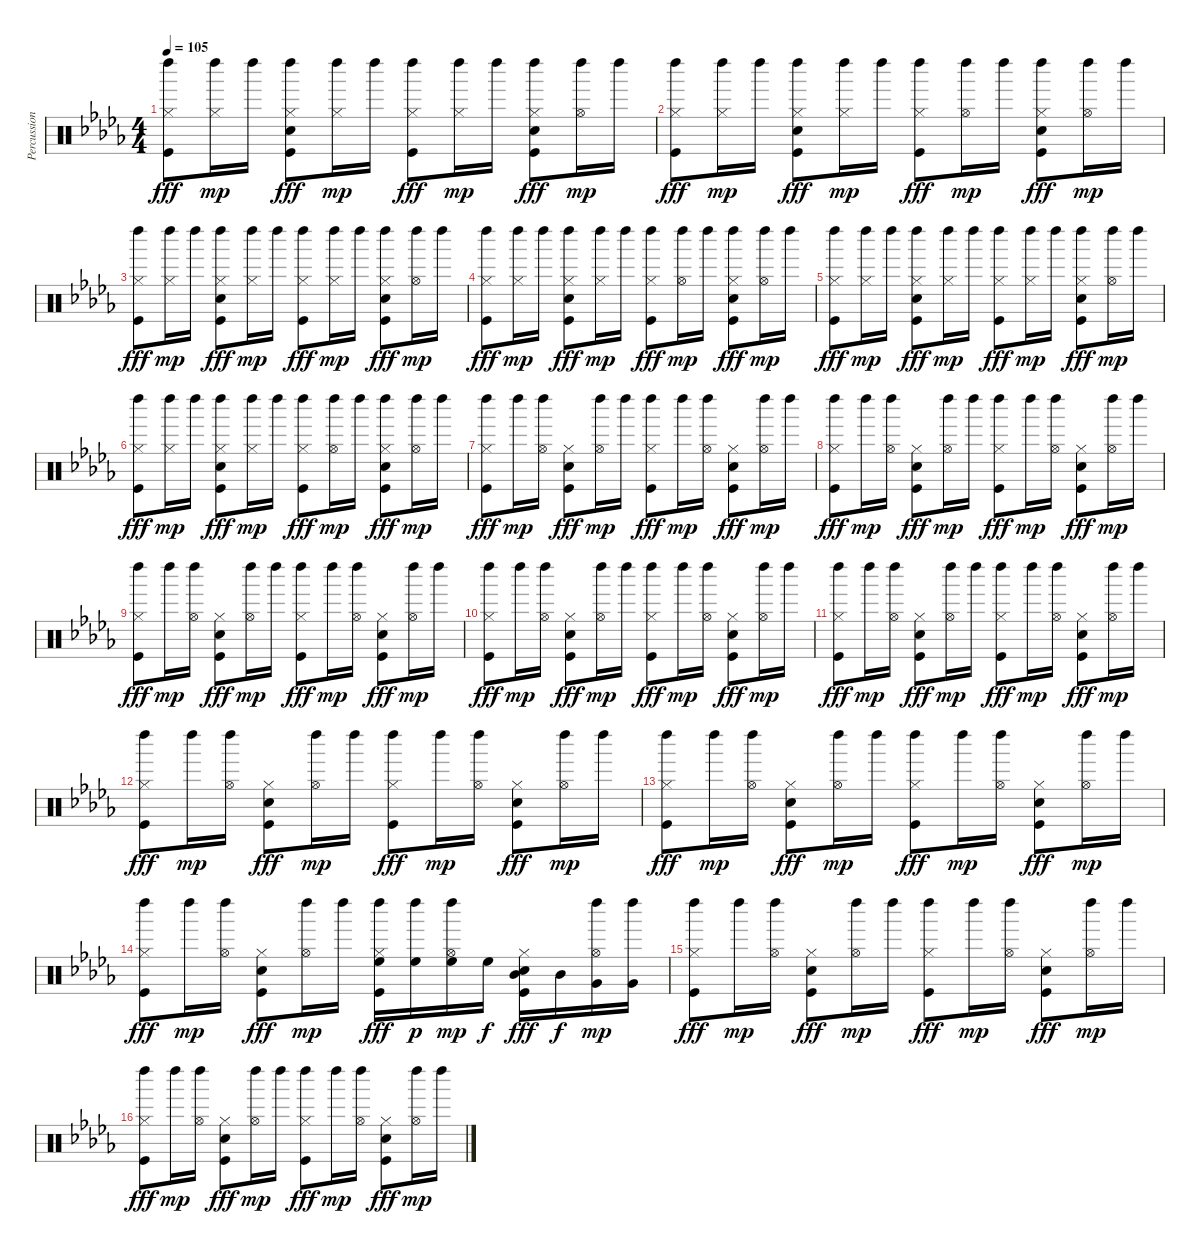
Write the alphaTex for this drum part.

\track ("Percussion" "Percussion") {instrument percussion}
\staff {score}
\articulation defaults
\ts (4 4)
\tempo 105
\clef neutral
\ks db
("Hi-Hat (closed)" "Left Maraca (hit)" "Kick (hit)").8{dy fff} ("Hi-Hat (closed)" "Left Maraca (hit)").16{dy mp} "Left Maraca (hit)".16 ("Hi-Hat (closed)" "Left Maraca (hit)" "Snare (hit) 2" "Kick (hit)").8{dy fff} ("Hi-Hat (closed)" "Left Maraca (hit)").16{dy mp} "Left Maraca (hit)".16 ("Hi-Hat (closed)" "Left Maraca (hit)" "Kick (hit)").8{dy fff} ("Hi-Hat (closed)" "Left Maraca (hit)").16{dy mp} "Left Maraca (hit)".16 ("Hi-Hat (closed)" "Left Maraca (hit)" "Snare (hit) 2" "Kick (hit)").8{dy fff} ("Hi-Hat (open)" "Left Maraca (hit)").16{dy mp} "Left Maraca (hit)".16 |
("Hi-Hat (closed)" "Left Maraca (hit)" "Kick (hit)").8{dy fff} ("Hi-Hat (closed)" "Left Maraca (hit)").16{dy mp} "Left Maraca (hit)".16 ("Hi-Hat (closed)" "Left Maraca (hit)" "Snare (hit) 2" "Kick (hit)").8{dy fff} ("Hi-Hat (closed)" "Left Maraca (hit)").16{dy mp} "Left Maraca (hit)".16 ("Hi-Hat (closed)" "Left Maraca (hit)" "Kick (hit)").8{dy fff} ("Hi-Hat (open)" "Left Maraca (hit)").16{dy mp} "Left Maraca (hit)".16 ("Hi-Hat (closed)" "Left Maraca (hit)" "Snare (hit) 2" "Kick (hit)").8{dy fff} ("Hi-Hat (open)" "Left Maraca (hit)").16{dy mp} "Left Maraca (hit)".16 |
("Hi-Hat (closed)" "Left Maraca (hit)" "Kick (hit)").8{dy fff} ("Hi-Hat (closed)" "Left Maraca (hit)").16{dy mp} "Left Maraca (hit)".16 ("Hi-Hat (closed)" "Left Maraca (hit)" "Snare (hit) 2" "Kick (hit)").8{dy fff} ("Hi-Hat (closed)" "Left Maraca (hit)").16{dy mp} "Left Maraca (hit)".16 ("Hi-Hat (closed)" "Left Maraca (hit)" "Kick (hit)").8{dy fff} ("Hi-Hat (closed)" "Left Maraca (hit)").16{dy mp} "Left Maraca (hit)".16 ("Hi-Hat (closed)" "Left Maraca (hit)" "Snare (hit) 2" "Kick (hit)").8{dy fff} ("Hi-Hat (open)" "Left Maraca (hit)").16{dy mp} "Left Maraca (hit)".16 |
("Hi-Hat (closed)" "Left Maraca (hit)" "Kick (hit)").8{dy fff} ("Hi-Hat (closed)" "Left Maraca (hit)").16{dy mp} "Left Maraca (hit)".16 ("Hi-Hat (closed)" "Left Maraca (hit)" "Snare (hit) 2" "Kick (hit)").8{dy fff} ("Hi-Hat (closed)" "Left Maraca (hit)").16{dy mp} "Left Maraca (hit)".16 ("Hi-Hat (closed)" "Left Maraca (hit)" "Kick (hit)").8{dy fff} ("Hi-Hat (open)" "Left Maraca (hit)").16{dy mp} "Left Maraca (hit)".16 ("Hi-Hat (closed)" "Left Maraca (hit)" "Snare (hit) 2" "Kick (hit)").8{dy fff} ("Hi-Hat (open)" "Left Maraca (hit)").16{dy mp} "Left Maraca (hit)".16 |
("Hi-Hat (closed)" "Left Maraca (hit)" "Kick (hit)").8{dy fff} ("Hi-Hat (closed)" "Left Maraca (hit)").16{dy mp} "Left Maraca (hit)".16 ("Hi-Hat (closed)" "Left Maraca (hit)" "Snare (hit) 2" "Kick (hit)").8{dy fff} ("Hi-Hat (closed)" "Left Maraca (hit)").16{dy mp} "Left Maraca (hit)".16 ("Hi-Hat (closed)" "Left Maraca (hit)" "Kick (hit)").8{dy fff} ("Hi-Hat (closed)" "Left Maraca (hit)").16{dy mp} "Left Maraca (hit)".16 ("Hi-Hat (closed)" "Left Maraca (hit)" "Snare (hit) 2" "Kick (hit)").8{dy fff} ("Hi-Hat (open)" "Left Maraca (hit)").16{dy mp} "Left Maraca (hit)".16 |
("Hi-Hat (closed)" "Left Maraca (hit)" "Kick (hit)").8{dy fff} ("Hi-Hat (closed)" "Left Maraca (hit)").16{dy mp} "Left Maraca (hit)".16 ("Hi-Hat (closed)" "Left Maraca (hit)" "Snare (hit) 2" "Kick (hit)").8{dy fff} ("Hi-Hat (closed)" "Left Maraca (hit)").16{dy mp} "Left Maraca (hit)".16 ("Hi-Hat (closed)" "Left Maraca (hit)" "Kick (hit)").8{dy fff} ("Hi-Hat (open)" "Left Maraca (hit)").16{dy mp} "Left Maraca (hit)".16 ("Hi-Hat (closed)" "Left Maraca (hit)" "Snare (hit) 2" "Kick (hit)").8{dy fff} ("Hi-Hat (open)" "Left Maraca (hit)").16{dy mp} "Left Maraca (hit)".16 |
("Hi-Hat (closed)" "Left Maraca (hit)" "Kick (hit)").8{dy fff} "Left Maraca (hit)".16{dy mp} ("Hi-Hat (open)" "Left Maraca (hit)").16 ("Hi-Hat (closed)" "Snare (hit) 2" "Kick (hit)").8{dy fff} ("Hi-Hat (open)" "Left Maraca (hit)").16{dy mp} "Left Maraca (hit)".16 ("Hi-Hat (closed)" "Left Maraca (hit)" "Kick (hit)").8{dy fff} "Left Maraca (hit)".16{dy mp} ("Hi-Hat (open)" "Left Maraca (hit)").16 ("Hi-Hat (closed)" "Snare (hit) 2" "Kick (hit)").8{dy fff} ("Hi-Hat (open)" "Left Maraca (hit)").16{dy mp} "Left Maraca (hit)".16 |
("Hi-Hat (closed)" "Left Maraca (hit)" "Kick (hit)").8{dy fff} "Left Maraca (hit)".16{dy mp} ("Hi-Hat (open)" "Left Maraca (hit)").16 ("Hi-Hat (closed)" "Snare (hit) 2" "Kick (hit)").8{dy fff} ("Hi-Hat (open)" "Left Maraca (hit)").16{dy mp} "Left Maraca (hit)".16 ("Hi-Hat (closed)" "Left Maraca (hit)" "Kick (hit)").8{dy fff} "Left Maraca (hit)".16{dy mp} ("Hi-Hat (open)" "Left Maraca (hit)").16 ("Hi-Hat (closed)" "Snare (hit) 2" "Kick (hit)").8{dy fff} ("Hi-Hat (open)" "Left Maraca (hit)").16{dy mp} "Left Maraca (hit)".16 |
("Hi-Hat (closed)" "Left Maraca (hit)" "Kick (hit)").8{dy fff} "Left Maraca (hit)".16{dy mp} ("Hi-Hat (open)" "Left Maraca (hit)").16 ("Hi-Hat (closed)" "Snare (hit) 2" "Kick (hit)").8{dy fff} ("Hi-Hat (open)" "Left Maraca (hit)").16{dy mp} "Left Maraca (hit)".16 ("Hi-Hat (closed)" "Left Maraca (hit)" "Kick (hit)").8{dy fff} "Left Maraca (hit)".16{dy mp} ("Hi-Hat (open)" "Left Maraca (hit)").16 ("Hi-Hat (closed)" "Snare (hit) 2" "Kick (hit)").8{dy fff} ("Hi-Hat (open)" "Left Maraca (hit)").16{dy mp} "Left Maraca (hit)".16 |
("Hi-Hat (closed)" "Left Maraca (hit)" "Kick (hit)").8{dy fff} "Left Maraca (hit)".16{dy mp} ("Hi-Hat (open)" "Left Maraca (hit)").16 ("Hi-Hat (closed)" "Snare (hit) 2" "Kick (hit)").8{dy fff} ("Hi-Hat (open)" "Left Maraca (hit)").16{dy mp} "Left Maraca (hit)".16 ("Hi-Hat (closed)" "Left Maraca (hit)" "Kick (hit)").8{dy fff} "Left Maraca (hit)".16{dy mp} ("Hi-Hat (open)" "Left Maraca (hit)").16 ("Hi-Hat (closed)" "Snare (hit) 2" "Kick (hit)").8{dy fff} ("Hi-Hat (open)" "Left Maraca (hit)").16{dy mp} "Left Maraca (hit)".16 |
("Hi-Hat (closed)" "Left Maraca (hit)" "Kick (hit)").8{dy fff} "Left Maraca (hit)".16{dy mp} ("Hi-Hat (open)" "Left Maraca (hit)").16 ("Hi-Hat (closed)" "Snare (hit) 2" "Kick (hit)").8{dy fff} ("Hi-Hat (open)" "Left Maraca (hit)").16{dy mp} "Left Maraca (hit)".16 ("Hi-Hat (closed)" "Left Maraca (hit)" "Kick (hit)").8{dy fff} "Left Maraca (hit)".16{dy mp} ("Hi-Hat (open)" "Left Maraca (hit)").16 ("Hi-Hat (closed)" "Snare (hit) 2" "Kick (hit)").8{dy fff} ("Hi-Hat (open)" "Left Maraca (hit)").16{dy mp} "Left Maraca (hit)".16 |
("Hi-Hat (closed)" "Left Maraca (hit)" "Kick (hit)").8{dy fff} "Left Maraca (hit)".16{dy mp} ("Hi-Hat (open)" "Left Maraca (hit)").16 ("Hi-Hat (closed)" "Snare (hit) 2" "Kick (hit)").8{dy fff} ("Hi-Hat (open)" "Left Maraca (hit)").16{dy mp} "Left Maraca (hit)".16 ("Hi-Hat (closed)" "Left Maraca (hit)" "Kick (hit)").8{dy fff} "Left Maraca (hit)".16{dy mp} ("Hi-Hat (open)" "Left Maraca (hit)").16 ("Hi-Hat (closed)" "Snare (hit) 2" "Kick (hit)").8{dy fff} ("Hi-Hat (open)" "Left Maraca (hit)").16{dy mp} "Left Maraca (hit)".16 |
("Hi-Hat (closed)" "Left Maraca (hit)" "Kick (hit)").8{dy fff} "Left Maraca (hit)".16{dy mp} ("Hi-Hat (open)" "Left Maraca (hit)").16 ("Hi-Hat (closed)" "Snare (hit) 2" "Kick (hit)").8{dy fff} ("Hi-Hat (open)" "Left Maraca (hit)").16{dy mp} "Left Maraca (hit)".16 ("Hi-Hat (closed)" "Left Maraca (hit)" "Kick (hit)").8{dy fff} "Left Maraca (hit)".16{dy mp} ("Hi-Hat (open)" "Left Maraca (hit)").16 ("Hi-Hat (closed)" "Snare (hit) 2" "Kick (hit)").8{dy fff} ("Hi-Hat (open)" "Left Maraca (hit)").16{dy mp} "Left Maraca (hit)".16 |
("Hi-Hat (closed)" "Left Maraca (hit)" "Kick (hit)").8{dy fff} "Left Maraca (hit)".16{dy mp} ("Hi-Hat (open)" "Left Maraca (hit)").16 ("Hi-Hat (closed)" "Snare (hit) 2" "Kick (hit)").8{dy fff} ("Hi-Hat (open)" "Left Maraca (hit)").16{dy mp} "Left Maraca (hit)".16 ("Hi-Hat (closed)" "Left Maraca (hit)" "High Floor Tom (hit)" "Kick (hit)").16{dy fff} ("Left Maraca (hit)" "High Floor Tom (hit)").16{dy p} ("Hi-Hat (open)" "Left Maraca (hit)" "High Floor Tom (hit)").16{dy mp} "High Floor Tom (hit)".16{dy f} ("Hi-Hat (closed)" "Mid Tom (hit)" "Snare (hit) 2" "Kick (hit)").16{dy fff} "Mid Tom (hit)".16{dy f} ("Hi-Hat (open)" "Left Maraca (hit)" "Very Low Tom (hit)").16{dy mp} ("Left Maraca (hit)" "Very Low Tom (hit)").16 |
("Hi-Hat (closed)" "Left Maraca (hit)" "Kick (hit)").8{dy fff} "Left Maraca (hit)".16{dy mp} ("Hi-Hat (open)" "Left Maraca (hit)").16 ("Hi-Hat (closed)" "Snare (hit) 2" "Kick (hit)").8{dy fff} ("Hi-Hat (open)" "Left Maraca (hit)").16{dy mp} "Left Maraca (hit)".16 ("Hi-Hat (closed)" "Left Maraca (hit)" "Kick (hit)").8{dy fff} "Left Maraca (hit)".16{dy mp} ("Hi-Hat (open)" "Left Maraca (hit)").16 ("Hi-Hat (closed)" "Snare (hit) 2" "Kick (hit)").8{dy fff} ("Hi-Hat (open)" "Left Maraca (hit)").16{dy mp} "Left Maraca (hit)".16 |
("Hi-Hat (closed)" "Left Maraca (hit)" "Kick (hit)").8{dy fff} "Left Maraca (hit)".16{dy mp} ("Hi-Hat (open)" "Left Maraca (hit)").16 ("Hi-Hat (closed)" "Snare (hit) 2" "Kick (hit)").8{dy fff} ("Hi-Hat (open)" "Left Maraca (hit)").16{dy mp} "Left Maraca (hit)".16 ("Hi-Hat (closed)" "Left Maraca (hit)" "Kick (hit)").8{dy fff} "Left Maraca (hit)".16{dy mp} ("Hi-Hat (open)" "Left Maraca (hit)").16 ("Hi-Hat (closed)" "Snare (hit) 2" "Kick (hit)").8{dy fff} ("Hi-Hat (open)" "Left Maraca (hit)").16{dy mp} "Left Maraca (hit)".16
